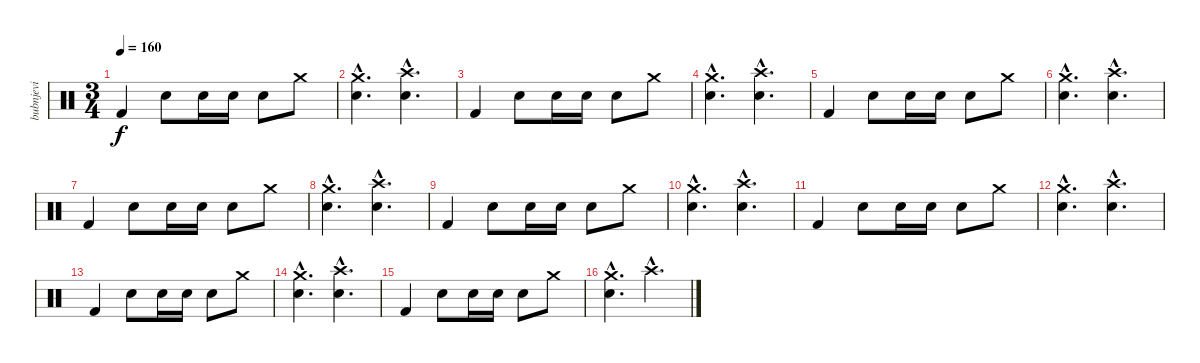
\track ("bubnjevi" "bubnjevi") {instrument percussion}
\staff {score}
\articulation defaults
\ts (3 4)
\tempo 160
\clef neutral
\ks c "Kick (hit) 2".4{dy f} "Snare (hit) 2".8 "Snare (hit) 2".16 "Snare (hit) 2".16 "Snare (hit) 2".8 "Crash medium (hit)".8
|
("Crash medium (hit)"{hac} "Electric Snare (hit)"{hac}).4{d} ("Crash high (hit)"{hac} "Electric Snare (hit)"{hac}).4{d} |
"Kick (hit) 2".4 "Snare (hit) 2".8 "Snare (hit) 2".16 "Snare (hit) 2".16 "Snare (hit) 2".8 "Crash medium (hit)".8 |
("Crash medium (hit)"{hac} "Electric Snare (hit)"{hac}).4{d} ("Crash high (hit)"{hac} "Electric Snare (hit)"{hac}).4{d} |
"Kick (hit) 2".4 "Snare (hit) 2".8 "Snare (hit) 2".16 "Snare (hit) 2".16 "Snare (hit) 2".8 "Crash medium (hit)".8 |
("Crash medium (hit)"{hac} "Electric Snare (hit)"{hac}).4{d} ("Crash high (hit)"{hac} "Electric Snare (hit)"{hac}).4{d} |
"Kick (hit) 2".4 "Snare (hit) 2".8 "Snare (hit) 2".16 "Snare (hit) 2".16 "Snare (hit) 2".8 "Crash medium (hit)".8 |
("Crash medium (hit)"{hac} "Electric Snare (hit)"{hac}).4{d} ("Crash high (hit)"{hac} "Electric Snare (hit)"{hac}).4{d} |
"Kick (hit) 2".4 "Snare (hit) 2".8 "Snare (hit) 2".16 "Snare (hit) 2".16 "Snare (hit) 2".8 "Crash medium (hit)".8 |
("Crash medium (hit)"{hac} "Electric Snare (hit)"{hac}).4{d} ("Crash high (hit)"{hac} "Electric Snare (hit)"{hac}).4{d} |
"Kick (hit) 2".4 "Snare (hit) 2".8 "Snare (hit) 2".16 "Snare (hit) 2".16 "Snare (hit) 2".8 "Crash medium (hit)".8 |
("Crash medium (hit)"{hac} "Electric Snare (hit)"{hac}).4{d} ("Crash high (hit)"{hac} "Electric Snare (hit)"{hac}).4{d} |
"Kick (hit) 2".4 "Snare (hit) 2".8 "Snare (hit) 2".16 "Snare (hit) 2".16 "Snare (hit) 2".8 "Crash medium (hit)".8 |
("Crash medium (hit)"{hac} "Electric Snare (hit)"{hac}).4{d} ("Crash high (hit)"{hac} "Electric Snare (hit)"{hac}).4{d} |
"Kick (hit) 2".4 "Snare (hit) 2".8 "Snare (hit) 2".16 "Snare (hit) 2".16 "Snare (hit) 2".8 "Crash medium (hit)".8 |
("Crash medium (hit)"{hac} "Electric Snare (hit)"{hac}).4{d} "Crash high (hit)"{hac}.4{d}
